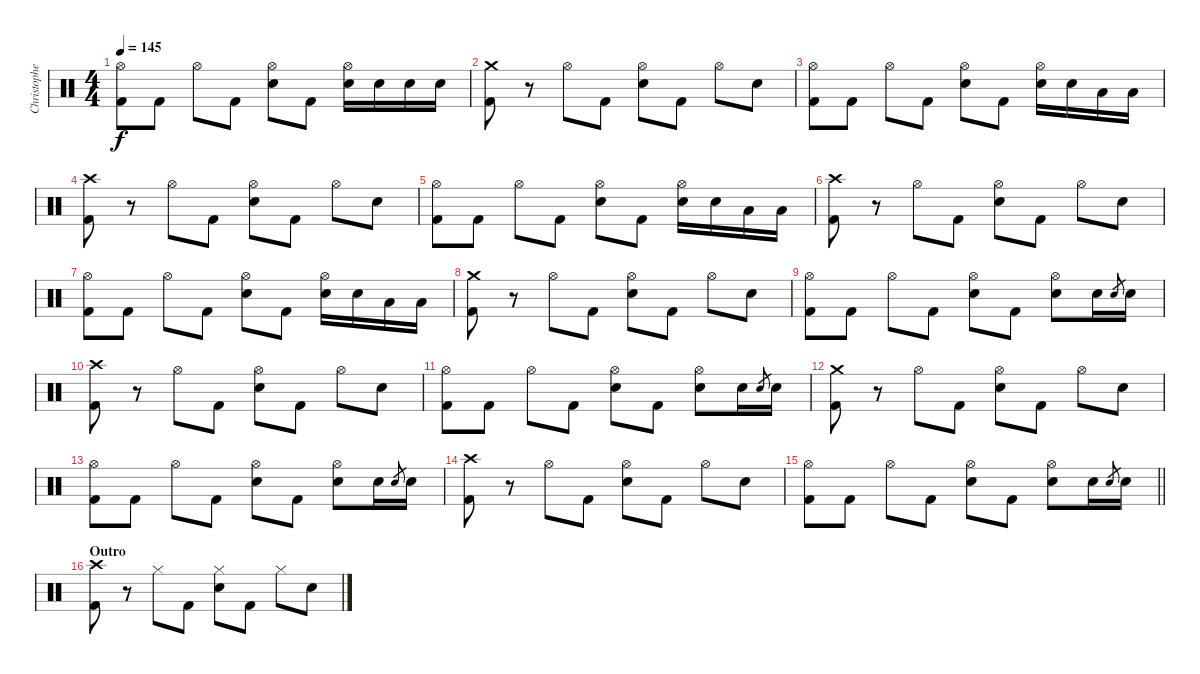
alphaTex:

\track ("Christopher - Drums" "Christophe") {instrument percussion}
\staff {score}
\articulation defaults
\ts (4 4)
\tempo 145
\clef neutral
\ks c
("Hi-Hat (open)" "Kick (hit) 2").8{dy f} "Kick (hit) 2".8 "Hi-Hat (open)".8 "Kick (hit) 2".8 ("Hi-Hat (open)" "Electric Snare (hit)").8 "Kick (hit) 2".8 ("Hi-Hat (open)" "Electric Snare (hit)").16 "Electric Snare (hit)".16 "Electric Snare (hit)".16 "Electric Snare (hit)".16 |
("Crash medium (hit)" "Kick (hit) 2").8 r.8 "Hi-Hat (open)".8 "Kick (hit) 2".8 ("Hi-Hat (open)" "Electric Snare (hit)").8 "Kick (hit) 2".8 "Hi-Hat (open)".8 "Electric Snare (hit)".8 |
("Hi-Hat (open)" "Kick (hit) 2").8 "Kick (hit) 2".8 "Hi-Hat (open)".8 "Kick (hit) 2".8 ("Hi-Hat (open)" "Electric Snare (hit)").8 "Kick (hit) 2".8 ("Hi-Hat (open)" "Electric Snare (hit)").16 "Electric Snare (hit)".16 "Low Tom (hit)".16 "Low Tom (hit)".16 |
("Crash high (hit)" "Kick (hit) 2").8 r.8 "Hi-Hat (open)".8 "Kick (hit) 2".8 ("Hi-Hat (open)" "Electric Snare (hit)").8 "Kick (hit) 2".8 "Hi-Hat (open)".8 "Electric Snare (hit)".8 |
("Hi-Hat (open)" "Kick (hit) 2").8 "Kick (hit) 2".8 "Hi-Hat (open)".8 "Kick (hit) 2".8 ("Hi-Hat (open)" "Electric Snare (hit)").8 "Kick (hit) 2".8 ("Hi-Hat (open)" "Electric Snare (hit)").16 "Electric Snare (hit)".16 "Low Tom (hit)".16 "Low Tom (hit)".16 |
("Crash high (hit)" "Kick (hit) 2").8 r.8 "Hi-Hat (open)".8 "Kick (hit) 2".8 ("Hi-Hat (open)" "Electric Snare (hit)").8 "Kick (hit) 2".8 "Hi-Hat (open)".8 "Electric Snare (hit)".8 |
("Hi-Hat (open)" "Kick (hit) 2").8 "Kick (hit) 2".8 "Hi-Hat (open)".8 "Kick (hit) 2".8 ("Hi-Hat (open)" "Electric Snare (hit)").8 "Kick (hit) 2".8 ("Hi-Hat (open)" "Electric Snare (hit)").16 "Electric Snare (hit)".16 "Low Tom (hit)".16 "Low Tom (hit)".16 |
("Crash medium (hit)" "Kick (hit) 2").8 r.8 "Hi-Hat (open)".8 "Kick (hit) 2".8 ("Hi-Hat (open)" "Electric Snare (hit)").8 "Kick (hit) 2".8 "Hi-Hat (open)".8 "Electric Snare (hit)".8 |
("Hi-Hat (open)" "Kick (hit) 2").8 "Kick (hit) 2".8 "Hi-Hat (open)".8 "Kick (hit) 2".8 ("Hi-Hat (open)" "Electric Snare (hit)").8 "Kick (hit) 2".8 ("Hi-Hat (open)" "Electric Snare (hit)").8 "Electric Snare (hit)".16 "Electric Snare (hit)".8{gr} "Electric Snare (hit)".16 |
("Crash high (hit)" "Kick (hit) 2").8 r.8 "Hi-Hat (open)".8 "Kick (hit) 2".8 ("Hi-Hat (open)" "Electric Snare (hit)").8 "Kick (hit) 2".8 "Hi-Hat (open)".8 "Electric Snare (hit)".8 |
("Hi-Hat (open)" "Kick (hit) 2").8 "Kick (hit) 2".8 "Hi-Hat (open)".8 "Kick (hit) 2".8 ("Hi-Hat (open)" "Electric Snare (hit)").8 "Kick (hit) 2".8 ("Hi-Hat (open)" "Electric Snare (hit)").8 "Electric Snare (hit)".16 "Electric Snare (hit)".8{gr} "Electric Snare (hit)".16 |
("Crash medium (hit)" "Kick (hit) 2").8 r.8 "Hi-Hat (open)".8 "Kick (hit) 2".8 ("Hi-Hat (open)" "Electric Snare (hit)").8 "Kick (hit) 2".8 "Hi-Hat (open)".8 "Electric Snare (hit)".8 |
("Hi-Hat (open)" "Kick (hit) 2").8 "Kick (hit) 2".8 "Hi-Hat (open)".8 "Kick (hit) 2".8 ("Hi-Hat (open)" "Electric Snare (hit)").8 "Kick (hit) 2".8 ("Hi-Hat (open)" "Electric Snare (hit)").8 "Electric Snare (hit)".16 "Electric Snare (hit)".8{gr} "Electric Snare (hit)".16 |
("Crash high (hit)" "Kick (hit) 2").8 r.8 "Hi-Hat (open)".8 "Kick (hit) 2".8 ("Hi-Hat (open)" "Electric Snare (hit)").8 "Kick (hit) 2".8 "Hi-Hat (open)".8 "Electric Snare (hit)".8 |
\barLineRight lightlight
("Hi-Hat (open)" "Kick (hit) 2").8 "Kick (hit) 2".8 "Hi-Hat (open)".8 "Kick (hit) 2".8 ("Hi-Hat (open)" "Electric Snare (hit)").8 "Kick (hit) 2".8 ("Hi-Hat (open)" "Electric Snare (hit)").8 "Electric Snare (hit)".16 "Electric Snare (hit)".8{gr} "Electric Snare (hit)".16 |
\section ("" "Outro")
("Crash high (hit)" "Kick (hit) 2").8 r.8 "Hi-Hat (closed)".8 "Kick (hit) 2".8 ("Hi-Hat (closed)" "Electric Snare (hit)").8 "Kick (hit) 2".8 "Hi-Hat (closed)".8 "Electric Snare (hit)".8
